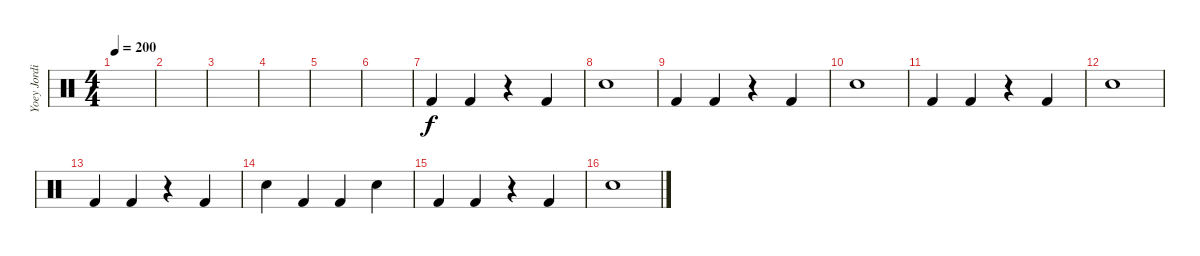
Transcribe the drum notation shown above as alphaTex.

\track ("Yoey Jordison" "Yoey Jordi") {instrument percussion}
\staff {score}
\articulation defaults
\ts (4 4)
\tempo 200
\clef neutral
\ks c
|
|
|
|
|
|
"Kick (hit) 2".4 "Kick (hit) 2".4 r.4 "Kick (hit) 2".4 |
"Snare (hit) 2".1 |
"Kick (hit) 2".4 "Kick (hit) 2".4 r.4 "Kick (hit) 2".4 |
"Snare (hit) 2".1 |
"Kick (hit) 2".4 "Kick (hit) 2".4 r.4 "Kick (hit) 2".4 |
"Snare (hit) 2".1 |
"Kick (hit) 2".4 "Kick (hit) 2".4 r.4 "Kick (hit) 2".4 |
"Snare (hit) 2".4 "Kick (hit) 2".4 "Kick (hit) 2".4 "Snare (hit) 2".4 |
"Kick (hit) 2".4 "Kick (hit) 2".4 r.4 "Kick (hit) 2".4 |
"Snare (hit) 2".1
